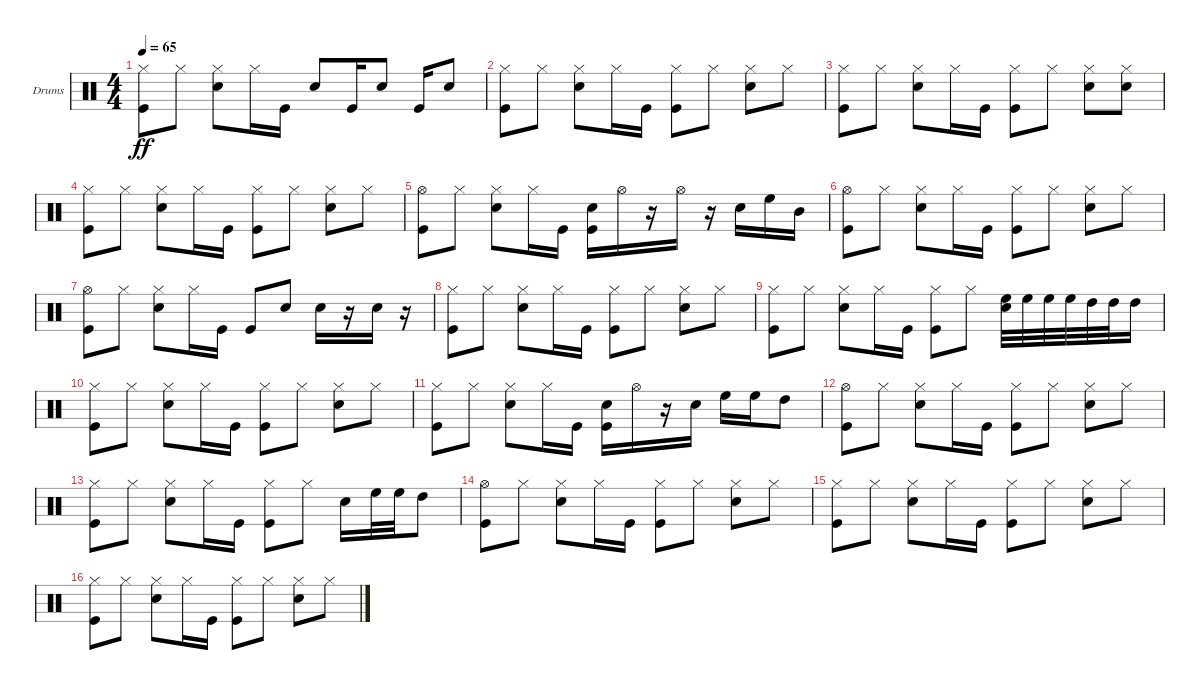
\bracketExtendMode groupsimilarinstruments
\firstSystemTrackNameOrientation horizontal
\otherSystemsTrackNameOrientation horizontal
\track ("Drumkit" "Drums") {instrument percussion}
\staff {score}
\articulation defaults
\ts (4 4)
\tempo 65
\clef neutral
\scale
0.333333
\ks c
("Hi-Hat (closed)" "Kick (hit)").8{dy ff} "Hi-Hat (closed)".8 ("Snare (hit) 2" "Hi-Hat (closed)").8 "Hi-Hat (closed)".16 "Kick (hit)".16 "Snare (hit) 2".8 "Kick (hit)".16 "Snare (hit) 2".8 "Kick (hit)".16 "Snare (hit) 2".8 |
\scale
0.333333 ("Hi-Hat (closed)" "Kick (hit)").8 "Hi-Hat (closed)".8 ("Snare (hit) 2" "Hi-Hat (closed)").8 "Hi-Hat (closed)".16 "Kick (hit)".16 ("Hi-Hat (closed)" "Kick (hit)").8 "Hi-Hat (closed)".8 ("Hi-Hat (closed)" "Snare (hit) 2").8 "Hi-Hat (closed)".8 |
\scale
0.333333 ("Hi-Hat (closed)" "Kick (hit)").8 "Hi-Hat (closed)".8 ("Snare (hit) 2" "Hi-Hat (closed)").8 "Hi-Hat (closed)".16 "Kick (hit)".16 ("Hi-Hat (closed)" "Kick (hit)").8 "Hi-Hat (closed)".8 ("Hi-Hat (closed)" "Snare (hit) 2").8 ("Snare (hit) 2" "Hi-Hat (closed)").8 |
\scale
0.333333 ("Hi-Hat (closed)" "Kick (hit)").8 "Hi-Hat (closed)".8 ("Snare (hit) 2" "Hi-Hat (closed)").8 "Hi-Hat (closed)".16 "Kick (hit)".16 ("Hi-Hat (closed)" "Kick (hit)").8 "Hi-Hat (closed)".8 ("Hi-Hat (closed)" "Snare (hit) 2").8 "Hi-Hat (closed)".8 |
\scale
0.333333 ("Hi-Hat (open)" "Kick (hit)").8 "Hi-Hat (closed)".8 ("Snare (hit) 2" "Hi-Hat (closed)").8 "Hi-Hat (closed)".16 "Kick (hit)".16 ("Snare (hit) 2" "Kick (hit)").16 "Hi-Hat (open)".16 r.16 "Hi-Hat (open)".16 r.16 "Snare (hit) 2".16 "High Floor Tom (hit)".16 "Mid Tom (hit)".16 |
\scale
0.333333 ("Hi-Hat (open)" "Kick (hit)").8 "Hi-Hat (closed)".8 ("Snare (hit) 2" "Hi-Hat (closed)").8 "Hi-Hat (closed)".16 "Kick (hit)".16 ("Hi-Hat (closed)" "Kick (hit)").8 "Hi-Hat (closed)".8 ("Hi-Hat (closed)" "Snare (hit) 2").8 "Hi-Hat (closed)".8 |
\scale
0.333333 ("Hi-Hat (open)" "Kick (hit)").8 "Hi-Hat (closed)".8 ("Snare (hit) 2" "Hi-Hat (closed)").8 "Hi-Hat (closed)".16 "Kick (hit)".16 "Kick (hit)".8 "Snare (hit) 2".8 "Snare (hit) 2".16 r.16 "Snare (hit) 2".16 r.16 |
\scale
0.333333 ("Hi-Hat (closed)" "Kick (hit)").8 "Hi-Hat (closed)".8 ("Snare (hit) 2" "Hi-Hat (closed)").8 "Hi-Hat (closed)".16 "Kick (hit)".16 ("Hi-Hat (closed)" "Kick (hit)").8 "Hi-Hat (closed)".8 ("Hi-Hat (closed)" "Snare (hit) 2").8 "Hi-Hat (closed)".8 |
\scale
0.333333 ("Hi-Hat (closed)" "Kick (hit)").8 "Hi-Hat (closed)".8 ("Snare (hit) 2" "Hi-Hat (closed)").8 "Hi-Hat (closed)".16 "Kick (hit)".16 ("Hi-Hat (closed)" "Kick (hit)").8 "Hi-Hat (closed)".8 ("High Floor Tom (hit)" "Snare (hit) 2").32 "High Floor Tom (hit)".32 "High Floor Tom (hit)".32 "High Floor Tom (hit)".32 "High Tom (hit)".32 "High Tom (hit)".32 "High Tom (hit)".16 |
\scale
0.333333 ("Hi-Hat (closed)" "Kick (hit)").8 "Hi-Hat (closed)".8 ("Snare (hit) 2" "Hi-Hat (closed)").8 "Hi-Hat (closed)".16 "Kick (hit)".16 ("Hi-Hat (closed)" "Kick (hit)").8 "Hi-Hat (closed)".8 ("Hi-Hat (closed)" "Snare (hit) 2").8 "Hi-Hat (closed)".8 |
\scale
0.333333 ("Hi-Hat (closed)" "Kick (hit)").8 "Hi-Hat (closed)".8 ("Snare (hit) 2" "Hi-Hat (closed)").8 "Hi-Hat (closed)".16 "Kick (hit)".16 ("Snare (hit) 2" "Kick (hit)").16 "Hi-Hat (open)".16 r.16 "Snare (hit) 2".16 "High Floor Tom (hit)".16 "High Floor Tom (hit)".16 "High Tom (hit)".8 |
\scale
0.333333 ("Hi-Hat (open)" "Kick (hit)").8 "Hi-Hat (closed)".8 ("Snare (hit) 2" "Hi-Hat (closed)").8 "Hi-Hat (closed)".16 "Kick (hit)".16 ("Hi-Hat (closed)" "Kick (hit)").8 "Hi-Hat (closed)".8 ("Hi-Hat (closed)" "Snare (hit) 2").8 "Hi-Hat (closed)".8 |
\scale
0.333333 ("Hi-Hat (closed)" "Kick (hit)").8 "Hi-Hat (closed)".8 ("Snare (hit) 2" "Hi-Hat (closed)").8 "Hi-Hat (closed)".16 "Kick (hit)".16 ("Hi-Hat (closed)" "Kick (hit)").8 "Hi-Hat (closed)".8 "Snare (hit) 2".16 "High Floor Tom (hit)".32 "High Floor Tom (hit)".32 "High Tom (hit)".8 |
\scale
0.333333 ("Hi-Hat (open)" "Kick (hit)").8 "Hi-Hat (closed)".8 ("Snare (hit) 2" "Hi-Hat (closed)").8 "Hi-Hat (closed)".16 "Kick (hit)".16 ("Hi-Hat (closed)" "Kick (hit)").8 "Hi-Hat (closed)".8 ("Hi-Hat (closed)" "Snare (hit) 2").8 "Hi-Hat (closed)".8 |
\scale
0.333333 ("Hi-Hat (closed)" "Kick (hit)").8 "Hi-Hat (closed)".8 ("Snare (hit) 2" "Hi-Hat (closed)").8 "Hi-Hat (closed)".16 "Kick (hit)".16 ("Hi-Hat (closed)" "Kick (hit)").8 "Hi-Hat (closed)".8 ("Hi-Hat (closed)" "Snare (hit) 2").8 "Hi-Hat (closed)".8 |
\scale
0.333333 ("Hi-Hat (closed)" "Kick (hit)").8 "Hi-Hat (closed)".8 ("Snare (hit) 2" "Hi-Hat (closed)").8 "Hi-Hat (closed)".16 "Kick (hit)".16 ("Hi-Hat (closed)" "Kick (hit)").8 "Hi-Hat (closed)".8 ("Hi-Hat (closed)" "Snare (hit) 2").8 "Hi-Hat (closed)".8
